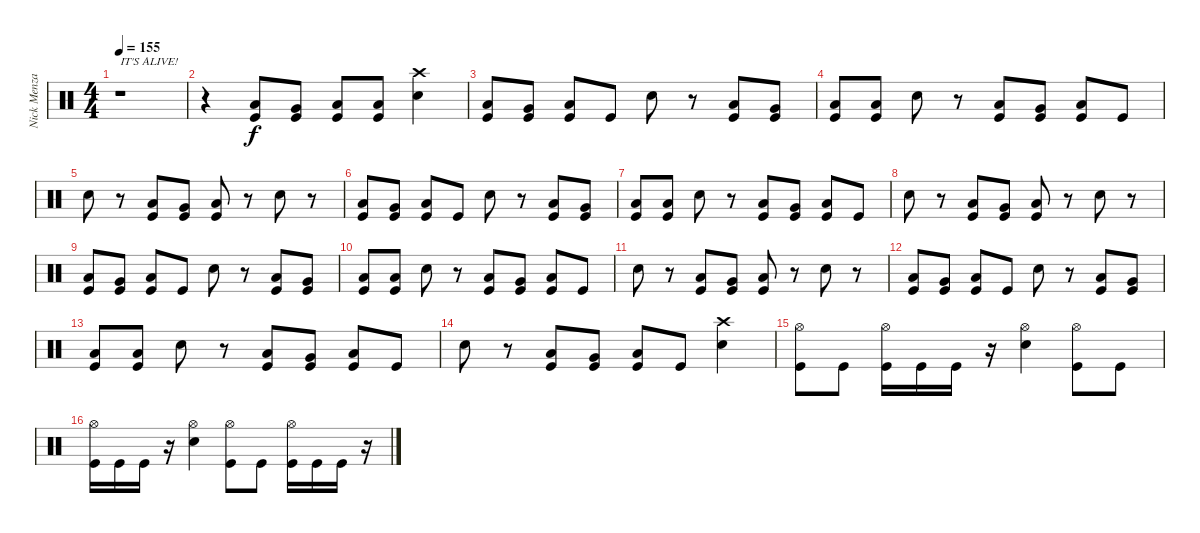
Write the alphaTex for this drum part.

\track ("Nick Menza" "Nick Menza") {instrument percussion}
\staff {score}
\articulation defaults
\ts (4 4)
\tempo 155
\clef neutral
\ks c
r.1{txt "IT'S ALIVE!" dy f} |
r.4 ("Low Tom (hit)" "Kick (hit)").8 ("Very Low Tom (hit)" "Kick (hit)").8 ("Low Floor Tom (hit)" "Kick (hit)").8 ("Low Floor Tom (hit)" "Kick (hit)").8 ("Crash high (hit)" "Snare (hit) 2").4 |
("Low Tom (hit)" "Kick (hit)").8 ("Very Low Tom (hit)" "Kick (hit)").8 ("Low Floor Tom (hit)" "Kick (hit)").8 "Kick (hit)".8 "Snare (hit) 2".8 r.8 ("Low Tom (hit)" "Kick (hit)").8 ("Very Low Tom (hit)" "Kick (hit)").8 |
("Low Floor Tom (hit)" "Kick (hit)").8 ("Low Floor Tom (hit)" "Kick (hit)").8 "Snare (hit) 2".8 r.8 ("Low Tom (hit)" "Kick (hit)").8 ("Very Low Tom (hit)" "Kick (hit)").8 ("Low Floor Tom (hit)" "Kick (hit)").8 "Kick (hit)".8 |
"Snare (hit) 2".8 r.8 ("Low Tom (hit)" "Kick (hit)").8 ("Very Low Tom (hit)" "Kick (hit)").8 ("Low Floor Tom (hit)" "Kick (hit)").8 r.8 "Snare (hit) 2".8 r.8 |
("Low Tom (hit)" "Kick (hit)").8 ("Very Low Tom (hit)" "Kick (hit)").8 ("Low Floor Tom (hit)" "Kick (hit)").8 "Kick (hit)".8 "Snare (hit) 2".8 r.8 ("Low Tom (hit)" "Kick (hit)").8 ("Very Low Tom (hit)" "Kick (hit)").8 |
("Low Floor Tom (hit)" "Kick (hit)").8 ("Low Floor Tom (hit)" "Kick (hit)").8 "Snare (hit) 2".8 r.8 ("Low Tom (hit)" "Kick (hit)").8 ("Very Low Tom (hit)" "Kick (hit)").8 ("Low Floor Tom (hit)" "Kick (hit)").8 "Kick (hit)".8 |
"Snare (hit) 2".8 r.8 ("Low Tom (hit)" "Kick (hit)").8 ("Very Low Tom (hit)" "Kick (hit)").8 ("Low Floor Tom (hit)" "Kick (hit)").8 r.8 "Snare (hit) 2".8 r.8 |
("Low Tom (hit)" "Kick (hit)").8 ("Very Low Tom (hit)" "Kick (hit)").8 ("Low Floor Tom (hit)" "Kick (hit)").8 "Kick (hit)".8 "Snare (hit) 2".8 r.8 ("Low Tom (hit)" "Kick (hit)").8 ("Very Low Tom (hit)" "Kick (hit)").8 |
("Low Floor Tom (hit)" "Kick (hit)").8 ("Low Floor Tom (hit)" "Kick (hit)").8 "Snare (hit) 2".8 r.8 ("Low Tom (hit)" "Kick (hit)").8 ("Very Low Tom (hit)" "Kick (hit)").8 ("Low Floor Tom (hit)" "Kick (hit)").8 "Kick (hit)".8 |
"Snare (hit) 2".8 r.8 ("Low Tom (hit)" "Kick (hit)").8 ("Very Low Tom (hit)" "Kick (hit)").8 ("Low Floor Tom (hit)" "Kick (hit)").8 r.8 "Snare (hit) 2".8 r.8 |
("Low Tom (hit)" "Kick (hit)").8 ("Very Low Tom (hit)" "Kick (hit)").8 ("Low Floor Tom (hit)" "Kick (hit)").8 "Kick (hit)".8 "Snare (hit) 2".8 r.8 ("Low Tom (hit)" "Kick (hit)").8 ("Very Low Tom (hit)" "Kick (hit)").8 |
("Low Floor Tom (hit)" "Kick (hit)").8 ("Low Floor Tom (hit)" "Kick (hit)").8 "Snare (hit) 2".8 r.8 ("Low Tom (hit)" "Kick (hit)").8 ("Very Low Tom (hit)" "Kick (hit)").8 ("Low Floor Tom (hit)" "Kick (hit)").8 "Kick (hit)".8 |
"Snare (hit) 2".8 r.8 ("Low Tom (hit)" "Kick (hit)").8 ("Very Low Tom (hit)" "Kick (hit)").8 ("Low Floor Tom (hit)" "Kick (hit)").8 "Kick (hit)".8 ("Crash high (hit)" "Snare (hit) 2").4 |
("Hi-Hat (open)" "Kick (hit)").8 "Kick (hit)".8 ("Hi-Hat (open)" "Kick (hit)").16 "Kick (hit)".16 "Kick (hit)".16 r.16 ("Hi-Hat (open)" "Snare (hit) 2").4 ("Hi-Hat (open)" "Kick (hit)").8 "Kick (hit)".8 |
("Hi-Hat (open)" "Kick (hit)").16 "Kick (hit)".16 "Kick (hit)".16 r.16 ("Hi-Hat (open)" "Snare (hit) 2").4 ("Hi-Hat (open)" "Kick (hit)").8 "Kick (hit)".8 ("Hi-Hat (open)" "Kick (hit)").16 "Kick (hit)".16 "Kick (hit)".16 r.16
